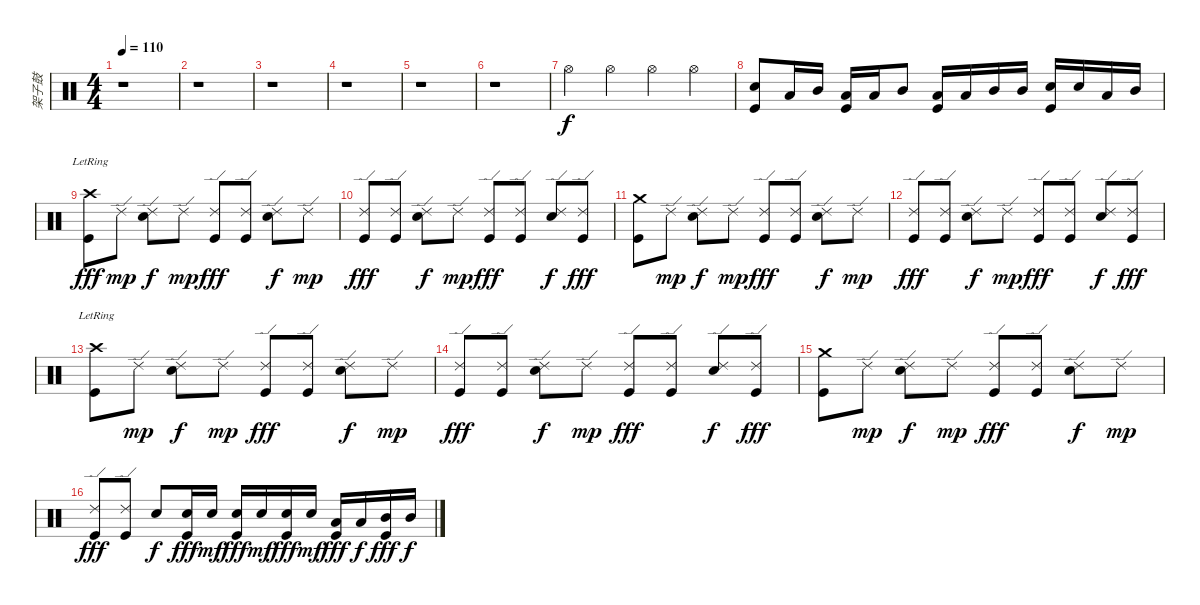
\track ("架子鼓" "架子鼓") {instrument percussion}
\staff {score}
\articulation defaults
\ts (4 4)
\tempo 110
\clef neutral
\ks c
r.1{dy f} |
r.1 |
r.1 |
r.1 |
r.1 |
r.1 |
"Hi-Hat (open)".4 "Hi-Hat (open)".4 "Hi-Hat (open)".4 "Hi-Hat (open)".4 |
("Electric Snare (hit)" "Kick (hit)").8{volume 16} "Low Tom (hit)".16 "Mid Tom (hit)".16 ("Low Tom (hit)" "Kick (hit)").16 "Low Tom (hit)".16 "Mid Tom (hit)".8 ("Low Tom (hit)" "Kick (hit)").16 "Low Tom (hit)".16 "Mid Tom (hit)".16 "Mid Tom (hit)".16 ("Electric Snare (hit)" "Kick (hit)").16 "Electric Snare (hit)".16 "Low Tom (hit)".16 "Mid Tom (hit)".16 |
("Crash high (hit)"{lr} "Kick (hit)").8{dy fff volume 16} "Ride (edge) 2".8{dy mp} ("Ride (edge) 2" "Electric Snare (hit)").8{dy f} "Ride (edge) 2".8{dy mp} ("Ride (edge) 2" "Kick (hit)").8{dy fff} ("Ride (edge) 2" "Kick (hit)").8 ("Ride (edge) 2" "Electric Snare (hit)").8{dy f} "Ride (edge) 2".8{dy mp} |
("Ride (edge) 2" "Kick (hit)").8{dy fff} ("Ride (edge) 2" "Kick (hit)").8 ("Ride (edge) 2" "Electric Snare (hit)").8{dy f} "Ride (edge) 2".8{dy mp} ("Ride (edge) 2" "Kick (hit)").8{dy fff} ("Ride (edge) 2" "Kick (hit)").8 ("Ride (edge) 2" "Electric Snare (hit)").8{dy f} ("Ride (edge) 2" "Kick (hit)").8{dy fff} |
("Crash medium (hit)" "Kick (hit)").8 "Ride (edge) 2".8{dy mp} ("Ride (edge) 2" "Electric Snare (hit)").8{dy f} "Ride (edge) 2".8{dy mp} ("Ride (edge) 2" "Kick (hit)").8{dy fff} ("Ride (edge) 2" "Kick (hit)").8 ("Ride (edge) 2" "Electric Snare (hit)").8{dy f} "Ride (edge) 2".8{dy mp} |
("Ride (edge) 2" "Kick (hit)").8{dy fff} ("Ride (edge) 2" "Kick (hit)").8 ("Ride (edge) 2" "Electric Snare (hit)").8{dy f} "Ride (edge) 2".8{dy mp} ("Ride (edge) 2" "Kick (hit)").8{dy fff} ("Ride (edge) 2" "Kick (hit)").8 ("Ride (edge) 2" "Electric Snare (hit)").8{dy f} ("Ride (edge) 2" "Kick (hit)").8{dy fff} |
("Crash high (hit)"{lr} "Kick (hit)").8 "Ride (edge) 2".8{dy mp} ("Ride (edge) 2" "Electric Snare (hit)").8{dy f} "Ride (edge) 2".8{dy mp} ("Ride (edge) 2" "Kick (hit)").8{dy fff} ("Ride (edge) 2" "Kick (hit)").8 ("Ride (edge) 2" "Electric Snare (hit)").8{dy f} "Ride (edge) 2".8{dy mp} |
("Ride (edge) 2" "Kick (hit)").8{dy fff} ("Ride (edge) 2" "Kick (hit)").8 ("Ride (edge) 2" "Electric Snare (hit)").8{dy f} "Ride (edge) 2".8{dy mp} ("Ride (edge) 2" "Kick (hit)").8{dy fff} ("Ride (edge) 2" "Kick (hit)").8 ("Ride (edge) 2" "Electric Snare (hit)").8{dy f} ("Ride (edge) 2" "Kick (hit)").8{dy fff} |
("Crash medium (hit)" "Kick (hit)").8 "Ride (edge) 2".8{dy mp} ("Ride (edge) 2" "Electric Snare (hit)").8{dy f} "Ride (edge) 2".8{dy mp} ("Ride (edge) 2" "Kick (hit)").8{dy fff} ("Ride (edge) 2" "Kick (hit)").8 ("Ride (edge) 2" "Electric Snare (hit)").8{dy f} "Ride (edge) 2".8{dy mp} |
("Ride (edge) 2" "Kick (hit)").8{dy fff} ("Ride (edge) 2" "Kick (hit)").8 "Electric Snare (hit)".8{dy f} ("Electric Snare (hit)" "Kick (hit)").16{dy fff} "Electric Snare (hit)".16{dy mf} ("Electric Snare (hit)" "Kick (hit)").16{dy fff} "Electric Snare (hit)".16{dy mf} ("Electric Snare (hit)" "Kick (hit)").16{dy fff} "Electric Snare (hit)".16{dy mf} ("Low Tom (hit)" "Kick (hit)").16{dy fff} "Low Tom (hit)".16{dy f} ("Mid Tom (hit)" "Kick (hit)").16{dy fff} "Mid Tom (hit)".16{dy f}
